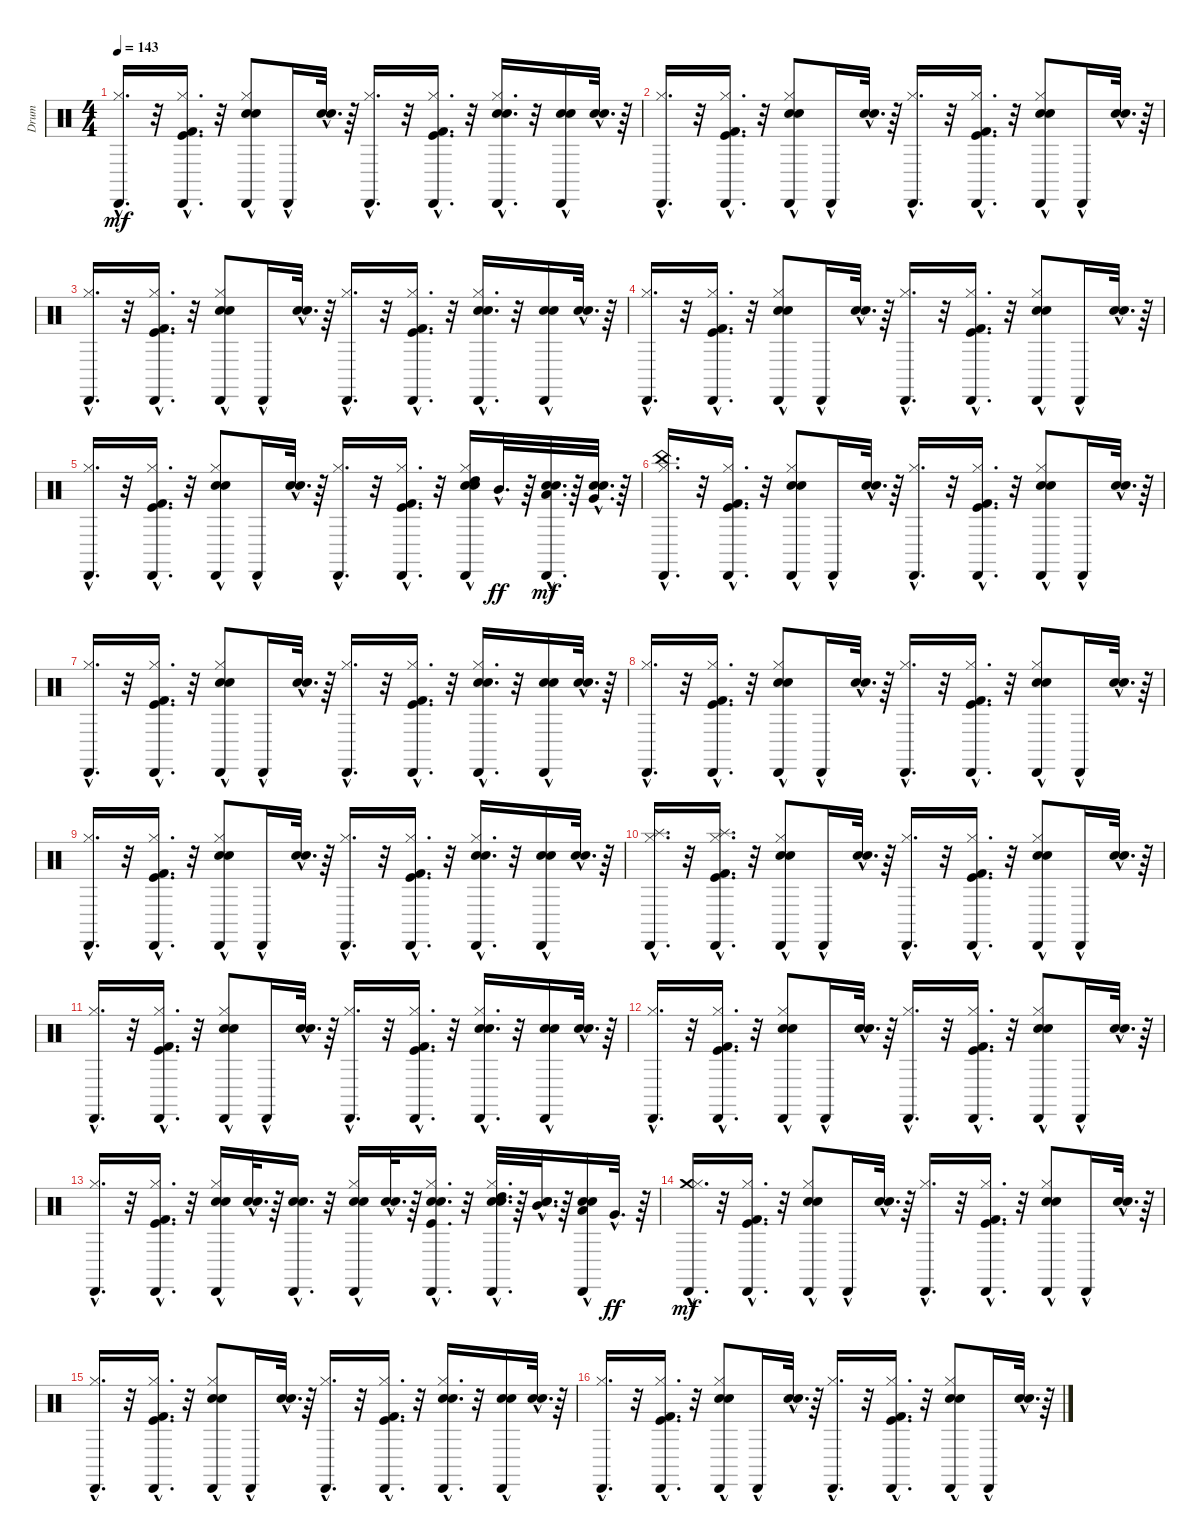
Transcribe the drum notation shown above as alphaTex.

\track ("Drum" "Drum") {instrument percussion}
\staff {score}
\articulation defaults
\ts (4 4)
\tempo 143
\clef neutral
\ks c
("Cabasa (hit)"{hac} "Hi-Hat (closed)"{hac}).16{d dy mf} r.32 ("Kick (hit) 2"{hac} "Cabasa (hit)"{hac} "Kick (hit)"{hac} "Hi-Hat (closed)"{hac}).16{d} r.32 ("Electric Snare (hit)" "Cabasa (hit)"{hac} "Snare (hit) 2" "Hi-Hat (closed)").8 "Cabasa (hit)"{hac}.16 ("Electric Snare (hit)"{hac} "Snare (hit) 2"{hac}).32{d} r.64 ("Cabasa (hit)"{hac} "Hi-Hat (closed)"{hac}).16{d} r.32 ("Kick (hit) 2"{hac} "Cabasa (hit)"{hac} "Kick (hit)"{hac} "Hi-Hat (closed)"{hac}).16{d} r.32 ("Electric Snare (hit)"{hac} "Cabasa (hit)"{hac} "Snare (hit) 2"{hac} "Hi-Hat (closed)"{hac}).16{d} r.32 ("Electric Snare (hit)"{hac} "Cabasa (hit)"{hac} "Snare (hit) 2"{hac}).16 ("Electric Snare (hit)"{hac} "Snare (hit) 2"{hac}).32{d} r.64 |
("Cabasa (hit)"{hac} "Hi-Hat (closed)"{hac}).16{d} r.32 ("Kick (hit) 2"{hac} "Cabasa (hit)"{hac} "Kick (hit)"{hac} "Hi-Hat (closed)"{hac}).16{d} r.32 ("Electric Snare (hit)" "Cabasa (hit)"{hac} "Snare (hit) 2" "Hi-Hat (closed)").8 "Cabasa (hit)"{hac}.16 ("Electric Snare (hit)"{hac} "Snare (hit) 2"{hac}).32{d} r.64 ("Cabasa (hit)"{hac} "Hi-Hat (closed)"{hac}).16{d} r.32 ("Kick (hit) 2"{hac} "Cabasa (hit)"{hac} "Kick (hit)"{hac} "Hi-Hat (closed)"{hac}).16{d} r.32 ("Electric Snare (hit)" "Cabasa (hit)"{hac} "Snare (hit) 2" "Hi-Hat (closed)").8 "Cabasa (hit)"{hac}.16 ("Electric Snare (hit)"{hac} "Snare (hit) 2"{hac}).32{d} r.64 |
("Cabasa (hit)"{hac} "Hi-Hat (closed)"{hac}).16{d} r.32 ("Kick (hit) 2"{hac} "Cabasa (hit)"{hac} "Hi-Hat (closed)"{hac} "Kick (hit)"{hac}).16{d} r.32 ("Electric Snare (hit)" "Cabasa (hit)"{hac} "Hi-Hat (closed)" "Snare (hit) 2").8 "Cabasa (hit)"{hac}.16 ("Electric Snare (hit)"{hac} "Snare (hit) 2"{hac}).32{d} r.64 ("Cabasa (hit)"{hac} "Hi-Hat (closed)"{hac}).16{d} r.32 ("Kick (hit) 2"{hac} "Cabasa (hit)"{hac} "Hi-Hat (closed)"{hac} "Kick (hit)"{hac}).16{d} r.32 ("Electric Snare (hit)"{hac} "Cabasa (hit)"{hac} "Hi-Hat (closed)"{hac} "Snare (hit) 2"{hac}).16{d} r.32 ("Electric Snare (hit)"{hac} "Cabasa (hit)"{hac} "Snare (hit) 2"{hac}).16 ("Electric Snare (hit)"{hac} "Snare (hit) 2"{hac}).32{d} r.64 |
("Cabasa (hit)"{hac} "Hi-Hat (closed)"{hac}).16{d} r.32 ("Kick (hit) 2"{hac} "Cabasa (hit)"{hac} "Kick (hit)"{hac} "Hi-Hat (closed)"{hac}).16{d} r.32 ("Electric Snare (hit)" "Cabasa (hit)"{hac} "Snare (hit) 2" "Hi-Hat (closed)").8 "Cabasa (hit)"{hac}.16 ("Electric Snare (hit)"{hac} "Snare (hit) 2"{hac}).32{d} r.64 ("Cabasa (hit)"{hac} "Hi-Hat (closed)"{hac}).16{d} r.32 ("Kick (hit) 2"{hac} "Cabasa (hit)"{hac} "Kick (hit)"{hac} "Hi-Hat (closed)"{hac}).16{d} r.32 ("Electric Snare (hit)" "Cabasa (hit)"{hac} "Snare (hit) 2" "Hi-Hat (closed)").8 "Cabasa (hit)"{hac}.16 ("Electric Snare (hit)"{hac} "Snare (hit) 2"{hac}).32{d} r.64 |
("Cabasa (hit)"{hac} "Hi-Hat (closed)"{hac}).16{d} r.32 ("Kick (hit) 2"{hac} "Cabasa (hit)"{hac} "Kick (hit)"{hac} "Hi-Hat (closed)"{hac}).16{d} r.32 ("Electric Snare (hit)" "Cabasa (hit)"{hac} "Snare (hit) 2" "Hi-Hat (closed)").8 "Cabasa (hit)"{hac}.16 ("Electric Snare (hit)"{hac} "Snare (hit) 2"{hac}).32{d} r.64 ("Cabasa (hit)"{hac} "Hi-Hat (closed)"{hac}).16{d} r.32 ("Kick (hit) 2"{hac} "Cabasa (hit)"{hac} "Kick (hit)"{hac} "Hi-Hat (closed)"{hac}).16{d} r.32 ("Cabasa (hit)"{hac} "High Tom (hit)"{hac} "Electric Snare (hit)"{hac} "Snare (hit) 2"{hac} "Hi-Hat (closed)"{hac}).16 "Mid Tom (hit)"{hac}.32{d dy ff} r.64 ("Cabasa (hit)"{hac} "Low Tom (hit)"{hac} "Electric Snare (hit)"{hac} "Snare (hit) 2"{hac}).32{d dy mf} r.64 ("Very Low Tom (hit)"{hac} "Electric Snare (hit)"{hac} "Snare (hit) 2"{hac}).32{d} r.64 |
("China (hit)"{hac} "Cabasa (hit)"{hac} "Hi-Hat (closed)"{hac}).16{d} r.32 ("Hi-Hat (closed)"{hac} "Kick (hit)"{hac} "Cabasa (hit)"{hac} "Kick (hit) 2"{hac}).16{d} r.32 ("Snare (hit) 2" "Cabasa (hit)"{hac} "Hi-Hat (closed)" "Electric Snare (hit)").8 "Cabasa (hit)"{hac}.16 ("Snare (hit) 2"{hac} "Electric Snare (hit)"{hac}).32{d} r.64 ("Cabasa (hit)"{hac} "Hi-Hat (closed)"{hac}).16{d} r.32 ("Kick (hit) 2"{hac} "Kick (hit)"{hac} "Hi-Hat (closed)"{hac} "Cabasa (hit)"{hac}).16{d} r.32 ("Hi-Hat (closed)" "Snare (hit) 2" "Cabasa (hit)"{hac} "Electric Snare (hit)").8 "Cabasa (hit)"{hac}.16 ("Electric Snare (hit)"{hac} "Snare (hit) 2"{hac}).32{d} r.64 |
("Cabasa (hit)"{hac} "Hi-Hat (closed)"{hac}).16{d} r.32 ("Kick (hit) 2"{hac} "Cabasa (hit)"{hac} "Hi-Hat (closed)"{hac} "Kick (hit)"{hac}).16{d} r.32 ("Electric Snare (hit)" "Cabasa (hit)"{hac} "Hi-Hat (closed)" "Snare (hit) 2").8 "Cabasa (hit)"{hac}.16 ("Electric Snare (hit)"{hac} "Snare (hit) 2"{hac}).32{d} r.64 ("Cabasa (hit)"{hac} "Hi-Hat (closed)"{hac}).16{d} r.32 ("Kick (hit) 2"{hac} "Cabasa (hit)"{hac} "Hi-Hat (closed)"{hac} "Kick (hit)"{hac}).16{d} r.32 ("Electric Snare (hit)"{hac} "Cabasa (hit)"{hac} "Hi-Hat (closed)"{hac} "Snare (hit) 2"{hac}).16{d} r.32 ("Electric Snare (hit)"{hac} "Cabasa (hit)"{hac} "Snare (hit) 2"{hac}).16 ("Electric Snare (hit)"{hac} "Snare (hit) 2"{hac}).32{d} r.64 |
("Cabasa (hit)"{hac} "Hi-Hat (closed)"{hac}).16{d} r.32 ("Kick (hit) 2"{hac} "Cabasa (hit)"{hac} "Kick (hit)"{hac} "Hi-Hat (closed)"{hac}).16{d} r.32 ("Electric Snare (hit)" "Cabasa (hit)"{hac} "Snare (hit) 2" "Hi-Hat (closed)").8 "Cabasa (hit)"{hac}.16 ("Electric Snare (hit)"{hac} "Snare (hit) 2"{hac}).32{d} r.64 ("Cabasa (hit)"{hac} "Hi-Hat (closed)"{hac}).16{d} r.32 ("Kick (hit) 2"{hac} "Cabasa (hit)"{hac} "Kick (hit)"{hac} "Hi-Hat (closed)"{hac}).16{d} r.32 ("Electric Snare (hit)" "Cabasa (hit)"{hac} "Snare (hit) 2" "Hi-Hat (closed)").8 "Cabasa (hit)"{hac}.16 ("Electric Snare (hit)"{hac} "Snare (hit) 2"{hac}).32{d} r.64 |
("Cabasa (hit)"{hac} "Hi-Hat (closed)"{hac}).16{d} r.32 ("Kick (hit) 2"{hac} "Cabasa (hit)"{hac} "Kick (hit)"{hac} "Hi-Hat (closed)"{hac}).16{d} r.32 ("Electric Snare (hit)" "Cabasa (hit)"{hac} "Snare (hit) 2" "Hi-Hat (closed)").8 "Cabasa (hit)"{hac}.16 ("Electric Snare (hit)"{hac} "Snare (hit) 2"{hac}).32{d} r.64 ("Cabasa (hit)"{hac} "Hi-Hat (closed)"{hac}).16{d} r.32 ("Kick (hit) 2"{hac} "Cabasa (hit)"{hac} "Kick (hit)"{hac} "Hi-Hat (closed)"{hac}).16{d} r.32 ("Electric Snare (hit)"{hac} "Cabasa (hit)"{hac} "Snare (hit) 2"{hac} "Hi-Hat (closed)"{hac}).16{d} r.32 ("Electric Snare (hit)"{hac} "Cabasa (hit)"{hac} "Snare (hit) 2"{hac}).16 ("Electric Snare (hit)"{hac} "Snare (hit) 2"{hac}).32{d} r.64 |
("Splash (hit)"{hac} "Hi-Hat (closed)"{hac} "Cabasa (hit)"{hac}).16{d} r.32 ("Splash (hit)"{hac} "Hi-Hat (closed)"{hac} "Kick (hit)"{hac} "Cabasa (hit)"{hac} "Kick (hit) 2"{hac}).16{d} r.32 ("Hi-Hat (closed)" "Snare (hit) 2" "Cabasa (hit)"{hac} "Electric Snare (hit)").8 "Cabasa (hit)"{hac}.16 ("Snare (hit) 2"{hac} "Electric Snare (hit)"{hac}).32{d} r.64 ("Hi-Hat (closed)"{hac} "Cabasa (hit)"{hac}).16{d} r.32 ("Hi-Hat (closed)"{hac} "Kick (hit)"{hac} "Cabasa (hit)"{hac} "Kick (hit) 2"{hac}).16{d} r.32 ("Hi-Hat (closed)" "Snare (hit) 2" "Cabasa (hit)"{hac} "Electric Snare (hit)").8 "Cabasa (hit)"{hac}.16 ("Snare (hit) 2"{hac} "Electric Snare (hit)"{hac}).32{d} r.64 |
("Hi-Hat (closed)"{hac} "Cabasa (hit)"{hac}).16{d} r.32 ("Kick (hit)"{hac} "Hi-Hat (closed)"{hac} "Cabasa (hit)"{hac} "Kick (hit) 2"{hac}).16{d} r.32 ("Snare (hit) 2" "Hi-Hat (closed)" "Cabasa (hit)"{hac} "Electric Snare (hit)").8 "Cabasa (hit)"{hac}.16 ("Snare (hit) 2"{hac} "Electric Snare (hit)"{hac}).32{d} r.64 ("Hi-Hat (closed)"{hac} "Cabasa (hit)"{hac}).16{d} r.32 ("Kick (hit)"{hac} "Hi-Hat (closed)"{hac} "Cabasa (hit)"{hac} "Kick (hit) 2"{hac}).16{d} r.32 ("Snare (hit) 2"{hac} "Hi-Hat (closed)"{hac} "Cabasa (hit)"{hac} "Electric Snare (hit)"{hac}).16{d} r.32 ("Snare (hit) 2"{hac} "Cabasa (hit)"{hac} "Electric Snare (hit)"{hac}).16 ("Snare (hit) 2"{hac} "Electric Snare (hit)"{hac}).32{d} r.64 |
("Hi-Hat (closed)"{hac} "Cabasa (hit)"{hac}).16{d} r.32 ("Hi-Hat (closed)"{hac} "Kick (hit)"{hac} "Cabasa (hit)"{hac} "Kick (hit) 2"{hac}).16{d} r.32 ("Hi-Hat (closed)" "Snare (hit) 2" "Cabasa (hit)"{hac} "Electric Snare (hit)").8 "Cabasa (hit)"{hac}.16 ("Snare (hit) 2"{hac} "Electric Snare (hit)"{hac}).32{d} r.64 ("Hi-Hat (closed)"{hac} "Cabasa (hit)"{hac}).16{d} r.32 ("Hi-Hat (closed)"{hac} "Kick (hit)"{hac} "Cabasa (hit)"{hac} "Kick (hit) 2"{hac}).16{d} r.32 ("Hi-Hat (closed)" "Snare (hit) 2" "Cabasa (hit)"{hac} "Electric Snare (hit)").8 "Cabasa (hit)"{hac}.16 ("Snare (hit) 2"{hac} "Electric Snare (hit)"{hac}).32{d} r.64 |
("Cabasa (hit)"{hac} "Hi-Hat (closed)"{hac}).16{d} r.32 ("Cabasa (hit)"{hac} "Hi-Hat (closed)"{hac} "Kick (hit)"{hac} "Kick (hit) 2"{hac}).16{d} r.32 ("Cabasa (hit)"{hac} "Snare (hit) 2"{hac} "Hi-Hat (closed)"{hac} "Electric Snare (hit)"{hac}).16 ("Snare (hit) 2"{hac} "Electric Snare (hit)"{hac}).32{d} r.64 ("Cabasa (hit)"{hac} "Snare (hit) 2"{hac} "Electric Snare (hit)"{hac}).16{d} r.32 ("Cabasa (hit)"{hac} "Snare (hit) 2"{hac} "Hi-Hat (closed)"{hac} "Electric Snare (hit)"{hac}).16 ("Snare (hit) 2"{hac} "Electric Snare (hit)"{hac}).32{d} r.64 ("Cabasa (hit)"{hac} "Snare (hit) 2"{hac} "Hi-Hat (closed)"{hac} "Kick (hit)"{hac} "Electric Snare (hit)"{hac}).16{d} r.32 ("High Tom (hit)"{hac} "Cabasa (hit)"{hac} "Snare (hit) 2"{hac} "Hi-Hat (closed)"{hac} "Electric Snare (hit)"{hac}).32{d} r.64 ("Mid Tom (hit)"{hac} "Snare (hit) 2"{hac} "Electric Snare (hit)"{hac}).32{d} r.64 ("Low Tom (hit)"{hac} "Cabasa (hit)"{hac} "Snare (hit) 2"{hac} "Electric Snare (hit)"{hac}).16 "Very Low Tom (hit)"{hac}.32{d dy ff} r.64 |
("Crash medium (hit)"{hac} "Hi-Hat (closed)"{hac} "Cabasa (hit)"{hac}).16{d dy mf} r.32 ("Hi-Hat (closed)"{hac} "Kick (hit)"{hac} "Cabasa (hit)"{hac} "Kick (hit) 2"{hac}).16{d} r.32 ("Hi-Hat (closed)" "Snare (hit) 2" "Cabasa (hit)"{hac} "Electric Snare (hit)").8 "Cabasa (hit)"{hac}.16 ("Snare (hit) 2"{hac} "Electric Snare (hit)"{hac}).32{d} r.64 ("Hi-Hat (closed)"{hac} "Cabasa (hit)"{hac}).16{d} r.32 ("Hi-Hat (closed)"{hac} "Kick (hit)"{hac} "Cabasa (hit)"{hac} "Kick (hit) 2"{hac}).16{d} r.32 ("Hi-Hat (closed)" "Snare (hit) 2" "Cabasa (hit)"{hac} "Electric Snare (hit)").8 "Cabasa (hit)"{hac}.16 ("Snare (hit) 2"{hac} "Electric Snare (hit)"{hac}).32{d} r.64 |
("Hi-Hat (closed)"{hac} "Cabasa (hit)"{hac}).16{d} r.32 ("Kick (hit)"{hac} "Hi-Hat (closed)"{hac} "Cabasa (hit)"{hac} "Kick (hit) 2"{hac}).16{d} r.32 ("Snare (hit) 2" "Hi-Hat (closed)" "Cabasa (hit)"{hac} "Electric Snare (hit)").8 "Cabasa (hit)"{hac}.16 ("Snare (hit) 2"{hac} "Electric Snare (hit)"{hac}).32{d} r.64 ("Hi-Hat (closed)"{hac} "Cabasa (hit)"{hac}).16{d} r.32 ("Kick (hit)"{hac} "Hi-Hat (closed)"{hac} "Cabasa (hit)"{hac} "Kick (hit) 2"{hac}).16{d} r.32 ("Snare (hit) 2"{hac} "Hi-Hat (closed)"{hac} "Cabasa (hit)"{hac} "Electric Snare (hit)"{hac}).16{d} r.32 ("Snare (hit) 2"{hac} "Cabasa (hit)"{hac} "Electric Snare (hit)"{hac}).16 ("Snare (hit) 2"{hac} "Electric Snare (hit)"{hac}).32{d} r.64 |
("Hi-Hat (closed)"{hac} "Cabasa (hit)"{hac}).16{d} r.32 ("Hi-Hat (closed)"{hac} "Kick (hit)"{hac} "Cabasa (hit)"{hac} "Kick (hit) 2"{hac}).16{d} r.32 ("Hi-Hat (closed)" "Snare (hit) 2" "Cabasa (hit)"{hac} "Electric Snare (hit)").8 "Cabasa (hit)"{hac}.16 ("Snare (hit) 2"{hac} "Electric Snare (hit)"{hac}).32{d} r.64 ("Hi-Hat (closed)"{hac} "Cabasa (hit)"{hac}).16{d} r.32 ("Hi-Hat (closed)"{hac} "Kick (hit)"{hac} "Cabasa (hit)"{hac} "Kick (hit) 2"{hac}).16{d} r.32 ("Hi-Hat (closed)" "Snare (hit) 2" "Cabasa (hit)"{hac} "Electric Snare (hit)").8 "Cabasa (hit)"{hac}.16 ("Snare (hit) 2"{hac} "Electric Snare (hit)"{hac}).32{d} r.64
